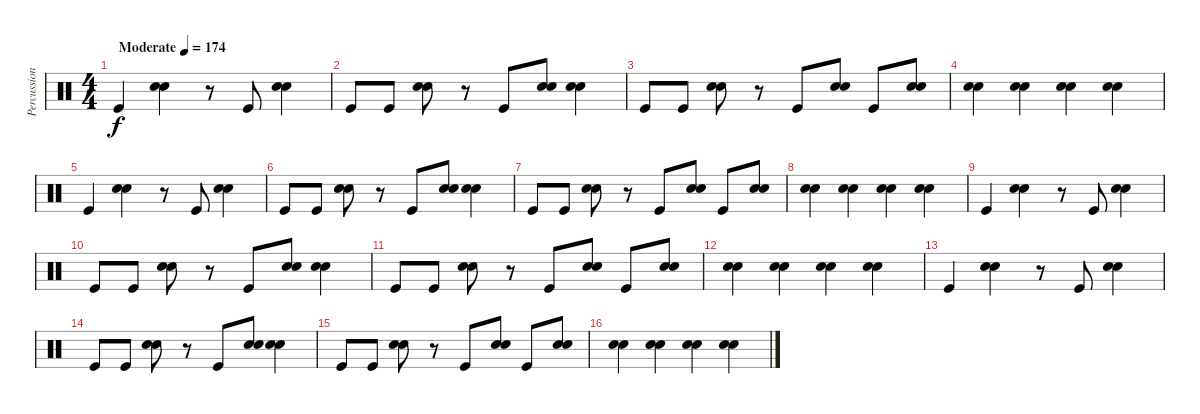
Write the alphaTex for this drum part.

\track ("Percussion" "Percussion") {instrument percussion}
\staff {score}
\articulation defaults
\ts (4 4)
\tempo (174 "Moderate")
\clef neutral
\ks c "Kick (hit)".4{dy f}
("Snare (hit) 2" "Snare (hit) 2").4 r.8 "Kick (hit)".8 ("Snare (hit) 2" "Snare (hit) 2").4 |
"Kick (hit)".8 "Kick (hit)".8 ("Snare (hit) 2" "Snare (hit) 2").8 r.8 "Kick (hit)".8 ("Snare (hit) 2" "Snare (hit) 2").8 ("Snare (hit) 2" "Snare (hit) 2").4 |
"Kick (hit)".8 "Kick (hit)".8 ("Snare (hit) 2" "Snare (hit) 2").8 r.8 "Kick (hit)".8 ("Snare (hit) 2" "Snare (hit) 2").8 "Kick (hit)".8 ("Snare (hit) 2" "Snare (hit) 2").8 |
("Snare (hit) 2" "Snare (hit) 2").4 ("Snare (hit) 2" "Snare (hit) 2").4 ("Snare (hit) 2" "Snare (hit) 2").4 ("Snare (hit) 2" "Snare (hit) 2").4 |
"Kick (hit)".4 ("Snare (hit) 2" "Snare (hit) 2").4 r.8 "Kick (hit)".8 ("Snare (hit) 2" "Snare (hit) 2").4 |
"Kick (hit)".8 "Kick (hit)".8 ("Snare (hit) 2" "Snare (hit) 2").8 r.8 "Kick (hit)".8 ("Snare (hit) 2" "Snare (hit) 2").8 ("Snare (hit) 2" "Snare (hit) 2").4 |
"Kick (hit)".8 "Kick (hit)".8 ("Snare (hit) 2" "Snare (hit) 2").8 r.8 "Kick (hit)".8 ("Snare (hit) 2" "Snare (hit) 2").8 "Kick (hit)".8 ("Snare (hit) 2" "Snare (hit) 2").8 |
("Snare (hit) 2" "Snare (hit) 2").4 ("Snare (hit) 2" "Snare (hit) 2").4 ("Snare (hit) 2" "Snare (hit) 2").4 ("Snare (hit) 2" "Snare (hit) 2").4 |
"Kick (hit)".4 ("Snare (hit) 2" "Snare (hit) 2").4 r.8 "Kick (hit)".8 ("Snare (hit) 2" "Snare (hit) 2").4 |
"Kick (hit)".8 "Kick (hit)".8 ("Snare (hit) 2" "Snare (hit) 2").8 r.8 "Kick (hit)".8 ("Snare (hit) 2" "Snare (hit) 2").8 ("Snare (hit) 2" "Snare (hit) 2").4 |
"Kick (hit)".8 "Kick (hit)".8 ("Snare (hit) 2" "Snare (hit) 2").8 r.8 "Kick (hit)".8 ("Snare (hit) 2" "Snare (hit) 2").8 "Kick (hit)".8 ("Snare (hit) 2" "Snare (hit) 2").8 |
("Snare (hit) 2" "Snare (hit) 2").4 ("Snare (hit) 2" "Snare (hit) 2").4 ("Snare (hit) 2" "Snare (hit) 2").4 ("Snare (hit) 2" "Snare (hit) 2").4 |
"Kick (hit)".4 ("Snare (hit) 2" "Snare (hit) 2").4 r.8 "Kick (hit)".8 ("Snare (hit) 2" "Snare (hit) 2").4 |
"Kick (hit)".8 "Kick (hit)".8 ("Snare (hit) 2" "Snare (hit) 2").8 r.8 "Kick (hit)".8 ("Snare (hit) 2" "Snare (hit) 2").8 ("Snare (hit) 2" "Snare (hit) 2").4 |
"Kick (hit)".8 "Kick (hit)".8 ("Snare (hit) 2" "Snare (hit) 2").8 r.8 "Kick (hit)".8 ("Snare (hit) 2" "Snare (hit) 2").8 "Kick (hit)".8 ("Snare (hit) 2" "Snare (hit) 2").8 |
("Snare (hit) 2" "Snare (hit) 2").4 ("Snare (hit) 2" "Snare (hit) 2").4 ("Snare (hit) 2" "Snare (hit) 2").4 ("Snare (hit) 2" "Snare (hit) 2").4
